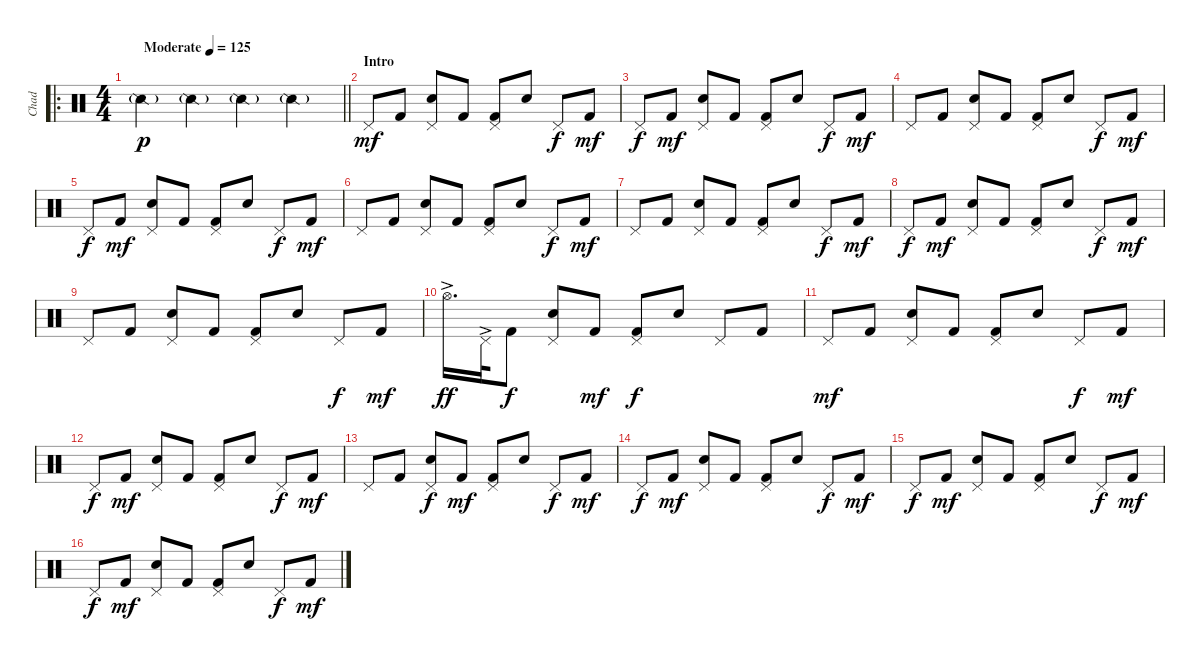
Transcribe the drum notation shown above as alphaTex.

\track ("Chad" "Chad") {instrument percussion}
\staff {score}
\articulation defaults
\ro
\ts (4 4)
\tempo (125 "Moderate")
\clef neutral
\barLineRight lightlight
\ks c "Snare (side stick) 2"{g}.4{dy p} "Snare (side stick) 2"{g}.4 "Snare (side stick) 2"{g}.4 "Snare (side stick) 2"{g}.4
|
\section ("" "Intro")
"Pedal Hi-Hat (hit)".8{dy mf} "Kick (hit) 2".8 ("Electric Snare (hit)" "Pedal Hi-Hat (hit)").8 "Kick (hit) 2".8 ("Kick (hit) 2" "Pedal Hi-Hat (hit)").8 "Electric Snare (hit)".8 "Pedal Hi-Hat (hit)".8{dy f} "Kick (hit) 2".8{dy mf} |
"Pedal Hi-Hat (hit)".8{dy f} "Kick (hit) 2".8{dy mf} ("Electric Snare (hit)" "Pedal Hi-Hat (hit)").8 "Kick (hit) 2".8 ("Kick (hit) 2" "Pedal Hi-Hat (hit)").8 "Electric Snare (hit)".8 "Pedal Hi-Hat (hit)".8{dy f} "Kick (hit) 2".8{dy mf} |
"Pedal Hi-Hat (hit)".8 "Kick (hit) 2".8 ("Electric Snare (hit)" "Pedal Hi-Hat (hit)").8 "Kick (hit) 2".8 ("Kick (hit) 2" "Pedal Hi-Hat (hit)").8 "Electric Snare (hit)".8 "Pedal Hi-Hat (hit)".8{dy f} "Kick (hit) 2".8{dy mf} |
"Pedal Hi-Hat (hit)".8{dy f} "Kick (hit) 2".8{dy mf} ("Electric Snare (hit)" "Pedal Hi-Hat (hit)").8 "Kick (hit) 2".8 ("Kick (hit) 2" "Pedal Hi-Hat (hit)").8 "Electric Snare (hit)".8 "Pedal Hi-Hat (hit)".8{dy f} "Kick (hit) 2".8{dy mf} |
"Pedal Hi-Hat (hit)".8 "Kick (hit) 2".8 ("Electric Snare (hit)" "Pedal Hi-Hat (hit)").8 "Kick (hit) 2".8 ("Kick (hit) 2" "Pedal Hi-Hat (hit)").8 "Electric Snare (hit)".8 "Pedal Hi-Hat (hit)".8{dy f} "Kick (hit) 2".8{dy mf} |
"Pedal Hi-Hat (hit)".8 "Kick (hit) 2".8 ("Electric Snare (hit)" "Pedal Hi-Hat (hit)").8 "Kick (hit) 2".8 ("Kick (hit) 2" "Pedal Hi-Hat (hit)").8 "Electric Snare (hit)".8 "Pedal Hi-Hat (hit)".8{dy f} "Kick (hit) 2".8{dy mf} |
"Pedal Hi-Hat (hit)".8{dy f} "Kick (hit) 2".8{dy mf} ("Electric Snare (hit)" "Pedal Hi-Hat (hit)").8 "Kick (hit) 2".8 ("Kick (hit) 2" "Pedal Hi-Hat (hit)").8 "Electric Snare (hit)".8 "Pedal Hi-Hat (hit)".8{dy f} "Kick (hit) 2".8{dy mf} |
"Pedal Hi-Hat (hit)".8 "Kick (hit) 2".8 ("Electric Snare (hit)" "Pedal Hi-Hat (hit)").8 "Kick (hit) 2".8 ("Kick (hit) 2" "Pedal Hi-Hat (hit)").8 "Electric Snare (hit)".8 "Pedal Hi-Hat (hit)".8{dy f} "Kick (hit) 2".8{dy mf} |
"Hi-Hat (open)"{ac}.16{d dy ff} "Pedal Hi-Hat (hit)"{ac}.32 "Kick (hit) 2".8{dy f} ("Electric Snare (hit)" "Pedal Hi-Hat (hit)").8 "Kick (hit) 2".8{dy mf} ("Kick (hit) 2" "Pedal Hi-Hat (hit)").8{dy f} "Electric Snare (hit)".8 "Pedal Hi-Hat (hit)".8 "Kick (hit) 2".8 |
"Pedal Hi-Hat (hit)".8{dy mf} "Kick (hit) 2".8 ("Electric Snare (hit)" "Pedal Hi-Hat (hit)").8 "Kick (hit) 2".8 ("Kick (hit) 2" "Pedal Hi-Hat (hit)").8 "Electric Snare (hit)".8 "Pedal Hi-Hat (hit)".8{dy f} "Kick (hit) 2".8{dy mf} |
"Pedal Hi-Hat (hit)".8{dy f} "Kick (hit) 2".8{dy mf} ("Electric Snare (hit)" "Pedal Hi-Hat (hit)").8 "Kick (hit) 2".8 ("Kick (hit) 2" "Pedal Hi-Hat (hit)").8 "Electric Snare (hit)".8 "Pedal Hi-Hat (hit)".8{dy f} "Kick (hit) 2".8{dy mf} |
"Pedal Hi-Hat (hit)".8 "Kick (hit) 2".8 ("Electric Snare (hit)" "Pedal Hi-Hat (hit)").8{dy f} "Kick (hit) 2".8{dy mf} ("Kick (hit) 2" "Pedal Hi-Hat (hit)").8 "Electric Snare (hit)".8 "Pedal Hi-Hat (hit)".8{dy f} "Kick (hit) 2".8{dy mf} |
"Pedal Hi-Hat (hit)".8{dy f} "Kick (hit) 2".8{dy mf} ("Electric Snare (hit)" "Pedal Hi-Hat (hit)").8 "Kick (hit) 2".8 ("Kick (hit) 2" "Pedal Hi-Hat (hit)").8 "Electric Snare (hit)".8 "Pedal Hi-Hat (hit)".8{dy f} "Kick (hit) 2".8{dy mf} |
"Pedal Hi-Hat (hit)".8{dy f} "Kick (hit) 2".8{dy mf} ("Electric Snare (hit)" "Pedal Hi-Hat (hit)").8 "Kick (hit) 2".8 ("Kick (hit) 2" "Pedal Hi-Hat (hit)").8 "Electric Snare (hit)".8 "Pedal Hi-Hat (hit)".8{dy f} "Kick (hit) 2".8{dy mf} |
"Pedal Hi-Hat (hit)".8{dy f} "Kick (hit) 2".8{dy mf} ("Electric Snare (hit)" "Pedal Hi-Hat (hit)").8 "Kick (hit) 2".8 ("Kick (hit) 2" "Pedal Hi-Hat (hit)").8 "Electric Snare (hit)".8 "Pedal Hi-Hat (hit)".8{dy f} "Kick (hit) 2".8{dy mf}
